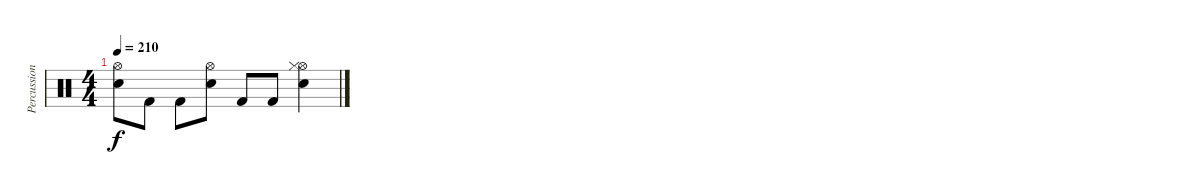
\track ("Percussion" "Percussion") {instrument percussion}
\staff {score}
\articulation defaults
\ts (4 4)
\tempo 210
\clef neutral
\ks c
("Hi-Hat (open)" "Snare (hit) 2").8{dy f} "Kick (hit) 2".8 "Kick (hit) 2".8 ("Hi-Hat (open)" "Snare (hit) 2").8 "Kick (hit) 2".8 "Kick (hit) 2".8 ("Hi-Hat (open)" "Hi-Hat (closed)" "Snare (hit) 2").4
